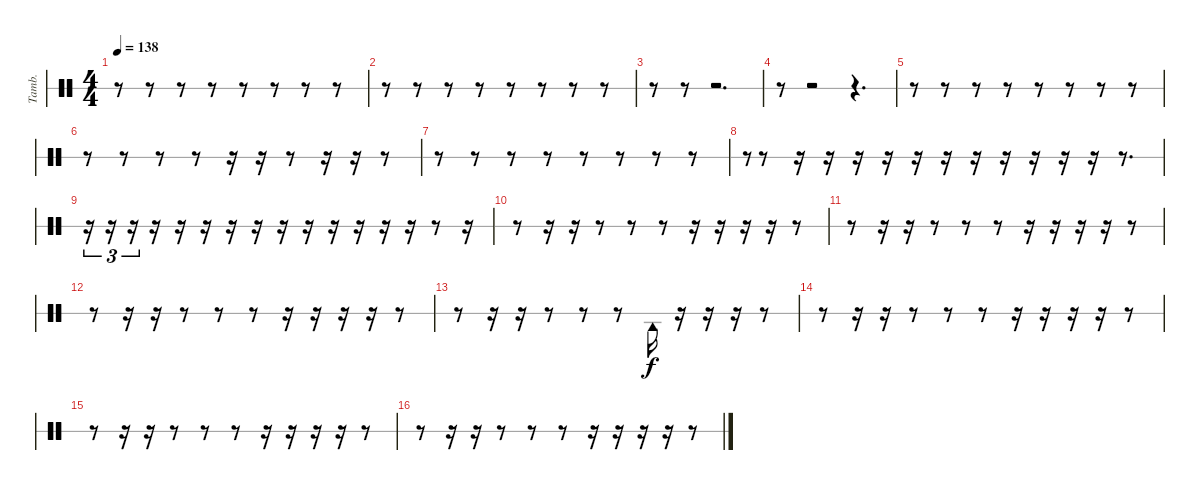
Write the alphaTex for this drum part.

\bracketExtendMode groupsimilarinstruments
\otherSystemsTrackNameOrientation horizontal
\track ("Tambourine" "Tamb.") {instrument percussion}
\staff {score 1}
\articulation defaults
\ts (4 4)
\tempo 138
\clef neutral
\ks c
r.8{dy mf beam Down} r.8{beam Down} r.8{beam Down} r.8{beam Down} r.8{beam Down} r.8{beam Down} r.8{beam Down} r.8{beam Down} |
r.8{beam Down} r.8{beam Down} r.8{beam Down} r.8{beam Down} r.8{beam Down} r.8{beam Down} r.8{beam Down} r.8{beam Down} |
r.8{beam Down} r.8{beam Down} r.2{d beam Down} |
r.8{beam Down} r.2{beam Down} r.4{d beam Down} |
r.8{beam Down} r.8{beam Down} r.8{beam Down} r.8{beam Down} r.8{beam Down} r.8{beam Down} r.8{beam Down} r.8{beam Down} |
r.8{beam Down} r.8{beam Down} r.8{beam Down} r.8{beam Down} r.16{beam Down} r.16{beam Down} r.8{beam Down} r.16{beam Down} r.16{beam Down} r.8{beam Down} |
r.8{beam Down} r.8{beam Down} r.8{beam Down} r.8{beam Down} r.8{beam Down} r.8{beam Down} r.8{beam Down} r.8{beam Down} |
r.8{gr beam Up} r.8{beam Down} r.16{beam Down} r.16{beam Down} r.16{beam Down} r.16{beam Down} r.16{beam Down} r.16{beam Down} r.16{beam Down} r.16{beam Down} r.16{beam Down} r.16{beam Down} r.16{beam Down} r.8{d beam Down} |
r.16{tu (3 2) beam Down} r.16{tu (3 2) beam Down} r.16{tu (3 2) beam Down} r.16{beam Down} r.16{beam Down} r.16{beam Down} r.16{beam Down} r.16{beam Down} r.16{beam Down} r.16{beam Down} r.16{beam Down} r.16{beam Down} r.16{beam Down} r.16{beam Down} r.8{beam Down} r.16{beam Down} |
r.8{beam Down} r.16{beam Down} r.16{beam Down} r.8{beam Down} r.8{beam Down} r.8{beam Down} r.16{beam Down} r.16{beam Down} r.16{beam Down} r.16{beam Down} r.8{beam Down} |
r.8{beam Down} r.16{beam Down} r.16{beam Down} r.8{beam Down} r.8{beam Down} r.8{beam Down} r.16{beam Down} r.16{beam Down} r.16{beam Down} r.16{beam Down} r.8{beam Down} |
r.8{beam Down} r.16{beam Down} r.16{beam Down} r.8{beam Down} r.8{beam Down} r.8{beam Down} r.16{beam Down} r.16{beam Down} r.16{beam Down} r.16{beam Down} r.8{beam Down} |
r.8{beam Down} r.16{beam Down} r.16{beam Down} r.8{beam Down} r.8{beam Down} r.8{beam Down} "Tambourine (hit)".16{dy f beam Down} r.16{beam Down} r.16{beam Down} r.16{beam Down} r.8{beam Down} |
r.8{beam Down} r.16{beam Down} r.16{beam Down} r.8{beam Down} r.8{beam Down} r.8{beam Down} r.16{beam Down} r.16{beam Down} r.16{beam Down} r.16{beam Down} r.8{beam Down} |
r.8{beam Down} r.16{beam Down} r.16{beam Down} r.8{beam Down} r.8{beam Down} r.8{beam Down} r.16{beam Down} r.16{beam Down} r.16{beam Down} r.16{beam Down} r.8{beam Down} |
r.8{beam Down} r.16{beam Down} r.16{beam Down} r.8{beam Down} r.8{beam Down} r.8{beam Down} r.16{beam Down} r.16{beam Down} r.16{beam Down} r.16{beam Down} r.8{beam Down}
